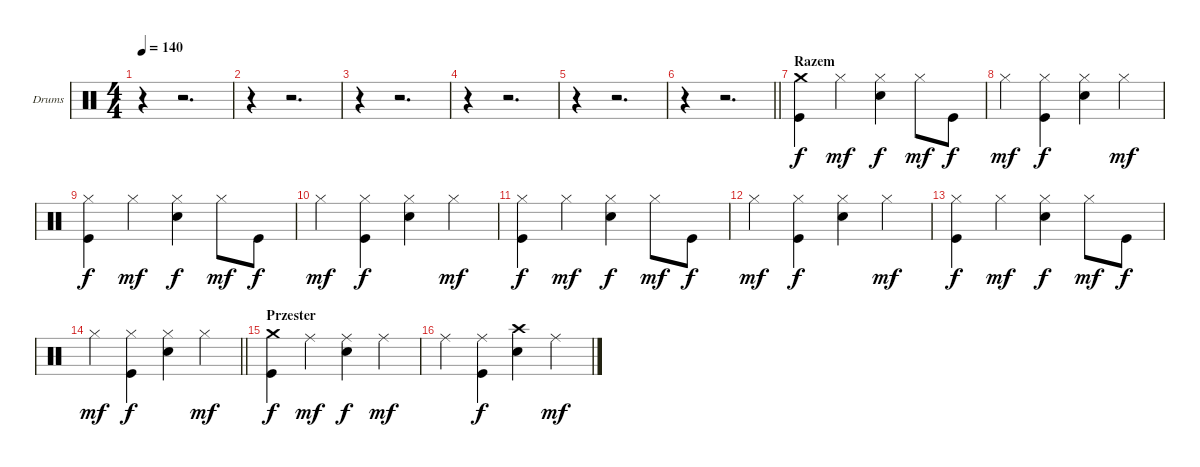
\bracketExtendMode groupsimilarinstruments
\firstSystemTrackNameOrientation horizontal
\otherSystemsTrackNameOrientation horizontal
\track ("Drumkit" "Drums") {instrument percussion}
\staff {score}
\articulation defaults
\ts (4 4)
\tempo 140
\clef neutral
\ks c
r.4{dy f} r.2{d} |
r.4 r.2{d} |
r.4 r.2{d} |
r.4 r.2{d} |
r.4 r.2{d} |
\barLineRight lightlight
r.4 r.2{d} |
\section ("" "Razem")
("Kick (hit)" "Crash medium (hit)").4 "Hi-Hat (closed)".4{dy mf} ("Snare (hit) 2" "Hi-Hat (closed)").4{dy f} "Hi-Hat (closed)".8{dy mf} "Kick (hit)".8{dy f} |
"Hi-Hat (closed)".4{dy mf} ("Kick (hit)" "Hi-Hat (closed)").4{dy f} ("Snare (hit) 2" "Hi-Hat (closed)").4 "Hi-Hat (closed)".4{dy mf} |
("Kick (hit)" "Hi-Hat (closed)").4{dy f} "Hi-Hat (closed)".4{dy mf} ("Snare (hit) 2" "Hi-Hat (closed)").4{dy f} "Hi-Hat (closed)".8{dy mf} "Kick (hit)".8{dy f} |
"Hi-Hat (closed)".4{dy mf} ("Kick (hit)" "Hi-Hat (closed)").4{dy f} ("Snare (hit) 2" "Hi-Hat (closed)").4 "Hi-Hat (closed)".4{dy mf} |
("Kick (hit)" "Hi-Hat (closed)").4{dy f} "Hi-Hat (closed)".4{dy mf} ("Snare (hit) 2" "Hi-Hat (closed)").4{dy f} "Hi-Hat (closed)".8{dy mf} "Kick (hit)".8{dy f} |
"Hi-Hat (closed)".4{dy mf} ("Kick (hit)" "Hi-Hat (closed)").4{dy f} ("Snare (hit) 2" "Hi-Hat (closed)").4 "Hi-Hat (closed)".4{dy mf} |
("Kick (hit)" "Hi-Hat (closed)").4{dy f} "Hi-Hat (closed)".4{dy mf} ("Snare (hit) 2" "Hi-Hat (closed)").4{dy f} "Hi-Hat (closed)".8{dy mf} "Kick (hit)".8{dy f} |
\barLineRight lightlight "Hi-Hat (closed)".4{dy mf}
("Kick (hit)" "Hi-Hat (closed)").4{dy f} ("Snare (hit) 2" "Hi-Hat (closed)").4 "Hi-Hat (closed)".4{dy mf} |
\section ("" "Przester")
("Kick (hit)" "Crash medium (hit)").4{dy f} "Ride (middle)".4{dy mf} ("Snare (hit) 2" "Ride (middle)").4{dy f} "Ride (middle)".4{dy mf} |
"Ride (middle)".4 ("Kick (hit)" "Ride (middle)").4{dy f} ("Snare (hit) 2" "Crash high (hit)").4 "Ride (middle)".4{dy mf}
